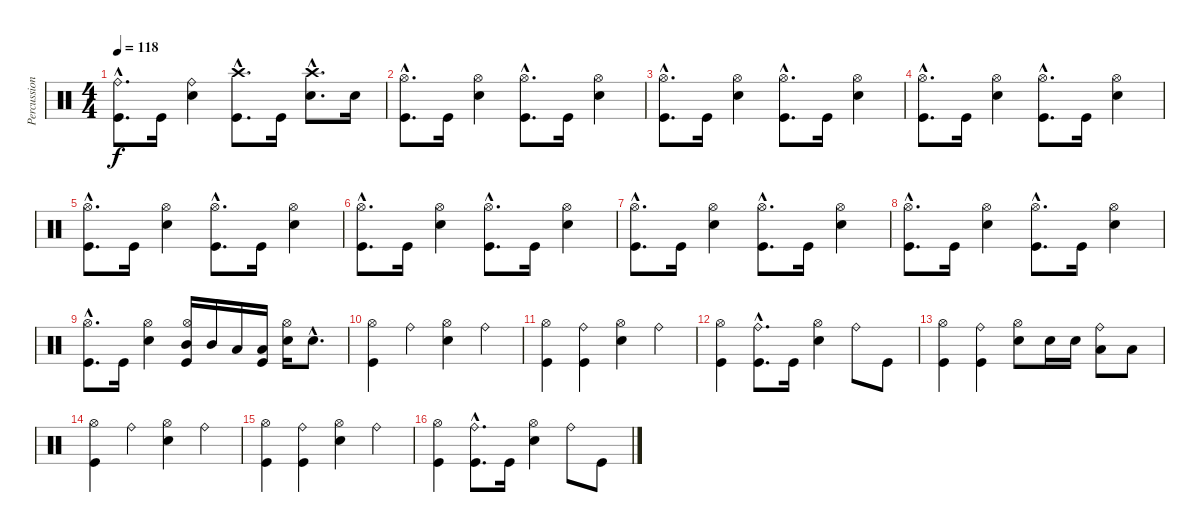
\track ("Percussion" "Percussion") {instrument percussion}
\staff {score}
\articulation defaults
\ts (4 4)
\tempo 118
\clef neutral
\ks c
("Ride (bell)"{hac} "Kick (hit)"{hac}).8{d dy f} "Kick (hit)".16 ("Ride (bell)" "Snare (hit) 2").4 ("Crash high (hit)"{hac} "Kick (hit)"{hac}).8{d} "Kick (hit)".16 ("Crash high (hit)"{hac} "Snare (hit) 2"{hac}).8{d} "Snare (hit) 2".16 |
("Hi-Hat (open)"{hac} "Kick (hit)"{hac}).8{d} "Kick (hit)".16 ("Hi-Hat (open)" "Snare (hit) 2").4 ("Hi-Hat (open)"{hac} "Kick (hit)"{hac}).8{d} "Kick (hit)".16 ("Hi-Hat (open)" "Snare (hit) 2").4 |
("Hi-Hat (open)"{hac} "Kick (hit)"{hac}).8{d} "Kick (hit)".16 ("Hi-Hat (open)" "Snare (hit) 2").4 ("Hi-Hat (open)"{hac} "Kick (hit)"{hac}).8{d} "Kick (hit)".16 ("Hi-Hat (open)" "Snare (hit) 2").4 |
("Hi-Hat (open)"{hac} "Kick (hit)"{hac}).8{d} "Kick (hit)".16 ("Hi-Hat (open)" "Snare (hit) 2").4 ("Hi-Hat (open)"{hac} "Kick (hit)"{hac}).8{d} "Kick (hit)".16 ("Hi-Hat (open)" "Snare (hit) 2").4 |
("Hi-Hat (open)"{hac} "Kick (hit)"{hac}).8{d} "Kick (hit)".16 ("Hi-Hat (open)" "Snare (hit) 2").4 ("Hi-Hat (open)"{hac} "Kick (hit)"{hac}).8{d} "Kick (hit)".16 ("Hi-Hat (open)" "Snare (hit) 2").4 |
("Hi-Hat (open)"{hac} "Kick (hit)"{hac}).8{d} "Kick (hit)".16 ("Hi-Hat (open)" "Snare (hit) 2").4 ("Hi-Hat (open)"{hac} "Kick (hit)"{hac}).8{d} "Kick (hit)".16 ("Hi-Hat (open)" "Snare (hit) 2").4 |
("Hi-Hat (open)"{hac} "Kick (hit)"{hac}).8{d} "Kick (hit)".16 ("Hi-Hat (open)" "Snare (hit) 2").4 ("Hi-Hat (open)"{hac} "Kick (hit)"{hac}).8{d} "Kick (hit)".16 ("Hi-Hat (open)" "Snare (hit) 2").4 |
("Hi-Hat (open)"{hac} "Kick (hit)"{hac}).8{d} "Kick (hit)".16 ("Hi-Hat (open)" "Snare (hit) 2").4 ("Hi-Hat (open)"{hac} "Kick (hit)"{hac}).8{d} "Kick (hit)".16 ("Hi-Hat (open)" "Snare (hit) 2").4 |
("Hi-Hat (open)"{hac} "Kick (hit)"{hac}).8{d} "Kick (hit)".16 ("Hi-Hat (open)" "Snare (hit) 2").4 ("Hi-Hat (open)" "Mid Tom (hit)" "Kick (hit)").16 "Mid Tom (hit)".16 "Low Tom (hit)".16 ("Low Tom (hit)" "Kick (hit)").16 ("Hi-Hat (open)" "Snare (hit) 2").16 "Electric Snare (hit)"{hac}.8{d} |
("Hi-Hat (open)" "Kick (hit)").4 "Ride (bell)".4 ("Hi-Hat (open)" "Snare (hit) 2").4 "Ride (bell)".4 |
("Hi-Hat (open)" "Kick (hit)").4 ("Ride (bell)" "Kick (hit)").4 ("Hi-Hat (open)" "Snare (hit) 2").4 "Ride (bell)".4 |
("Hi-Hat (open)" "Kick (hit)").4 ("Ride (bell)"{hac} "Kick (hit)"{hac}).8{d} "Kick (hit)".16 ("Hi-Hat (open)" "Snare (hit) 2").4 "Ride (bell)".8 "Kick (hit)".8 |
("Hi-Hat (open)" "Kick (hit)").4 ("Ride (bell)" "Kick (hit)").4 ("Hi-Hat (open)" "Snare (hit) 2").8 "Snare (hit) 2".16 "Electric Snare (hit)".16 ("Ride (bell)" "Low Tom (hit)").8 "Low Tom (hit)".8 |
("Hi-Hat (open)" "Kick (hit)").4 "Ride (bell)".4 ("Hi-Hat (open)" "Snare (hit) 2").4 "Ride (bell)".4 |
("Hi-Hat (open)" "Kick (hit)").4 ("Ride (bell)" "Kick (hit)").4 ("Hi-Hat (open)" "Snare (hit) 2").4 "Ride (bell)".4 |
("Hi-Hat (open)" "Kick (hit)").4 ("Ride (bell)"{hac} "Kick (hit)"{hac}).8{d} "Kick (hit)".16 ("Hi-Hat (open)" "Snare (hit) 2").4 "Ride (bell)".8 "Kick (hit)".8
